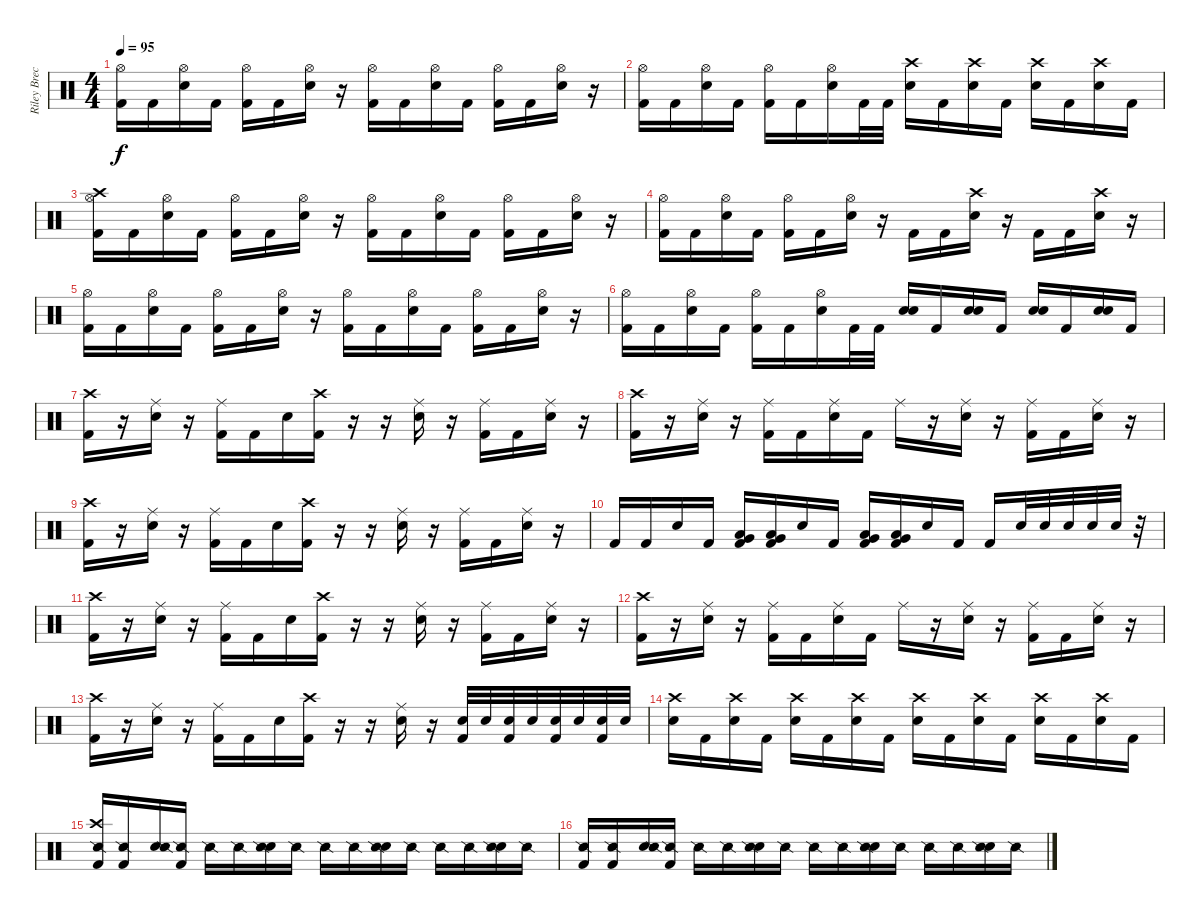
\track ("Riley Breckenridge" "Riley Brec") {instrument percussion}
\staff {score}
\articulation defaults
\ts (4 4)
\tempo 95
\clef neutral
\ks c
("Kick (hit) 2" "Hi-Hat (open)").16{dy f} "Kick (hit) 2".16 ("Electric Snare (hit)" "Hi-Hat (open)").16 "Kick (hit) 2".16 ("Kick (hit) 2" "Hi-Hat (open)").16 "Kick (hit) 2".16 ("Electric Snare (hit)" "Hi-Hat (open)").16 r.16 ("Kick (hit) 2" "Hi-Hat (open)").16 "Kick (hit) 2".16 ("Electric Snare (hit)" "Hi-Hat (open)").16 "Kick (hit) 2".16 ("Kick (hit) 2" "Hi-Hat (open)").16 "Kick (hit) 2".16 ("Electric Snare (hit)" "Hi-Hat (open)").16 r.16 |
("Kick (hit) 2" "Hi-Hat (open)").16 "Kick (hit) 2".16 ("Electric Snare (hit)" "Hi-Hat (open)").16 "Kick (hit) 2".16 ("Kick (hit) 2" "Hi-Hat (open)").16 "Kick (hit) 2".16 ("Electric Snare (hit)" "Hi-Hat (open)").16 "Kick (hit) 2".32 "Kick (hit) 2".32 ("Electric Snare (hit)" "Crash high (hit)").16 "Kick (hit) 2".16 ("Electric Snare (hit)" "Crash high (hit)").16 "Kick (hit) 2".16 ("Electric Snare (hit)" "Crash high (hit)").16 "Kick (hit) 2".16 ("Electric Snare (hit)" "Crash high (hit)").16 "Kick (hit) 2".16 |
("Kick (hit) 2" "Crash high (hit)" "Hi-Hat (open)").16 "Kick (hit) 2".16 ("Electric Snare (hit)" "Hi-Hat (open)").16 "Kick (hit) 2".16 ("Kick (hit) 2" "Hi-Hat (open)").16 "Kick (hit) 2".16 ("Electric Snare (hit)" "Hi-Hat (open)").16 r.16 ("Kick (hit) 2" "Hi-Hat (open)").16 "Kick (hit) 2".16 ("Electric Snare (hit)" "Hi-Hat (open)").16 "Kick (hit) 2".16 ("Kick (hit) 2" "Hi-Hat (open)").16 "Kick (hit) 2".16 ("Electric Snare (hit)" "Hi-Hat (open)").16 r.16 |
("Kick (hit) 2" "Hi-Hat (open)").16 "Kick (hit) 2".16 ("Electric Snare (hit)" "Hi-Hat (open)").16 "Kick (hit) 2".16 ("Kick (hit) 2" "Hi-Hat (open)").16 "Kick (hit) 2".16 ("Electric Snare (hit)" "Hi-Hat (open)").16 r.16 "Kick (hit) 2".16 "Kick (hit) 2".16 ("Electric Snare (hit)" "Crash high (hit)").16 r.16 "Kick (hit) 2".16 "Kick (hit) 2".16 ("Electric Snare (hit)" "Crash high (hit)").16 r.16 |
("Kick (hit) 2" "Hi-Hat (open)").16 "Kick (hit) 2".16 ("Electric Snare (hit)" "Hi-Hat (open)").16 "Kick (hit) 2".16 ("Kick (hit) 2" "Hi-Hat (open)").16 "Kick (hit) 2".16 ("Electric Snare (hit)" "Hi-Hat (open)").16 r.16 ("Kick (hit) 2" "Hi-Hat (open)").16 "Kick (hit) 2".16 ("Electric Snare (hit)" "Hi-Hat (open)").16 "Kick (hit) 2".16 ("Kick (hit) 2" "Hi-Hat (open)").16 "Kick (hit) 2".16 ("Electric Snare (hit)" "Hi-Hat (open)").16 r.16 |
("Kick (hit) 2" "Hi-Hat (open)").16 "Kick (hit) 2".16 ("Electric Snare (hit)" "Hi-Hat (open)").16 "Kick (hit) 2".16 ("Kick (hit) 2" "Hi-Hat (open)").16 "Kick (hit) 2".16 ("Electric Snare (hit)" "Hi-Hat (open)").16 "Kick (hit) 2".32 "Kick (hit) 2".32 ("Electric Snare (hit)" "Electric Snare (hit)").16 "Kick (hit) 2".16 ("Electric Snare (hit)" "Electric Snare (hit)").16 "Kick (hit) 2".16 ("Electric Snare (hit)" "Electric Snare (hit)").16 "Kick (hit) 2".16 ("Electric Snare (hit)" "Electric Snare (hit)").16 "Kick (hit) 2".16 |
("Kick (hit) 2" "Crash high (hit)").16 r.16 ("Electric Snare (hit)" "Ride (middle)").16 r.16 ("Kick (hit) 2" "Ride (middle)").16 "Kick (hit) 2".16 "Electric Snare (hit)".16 ("Kick (hit) 2" "Crash high (hit)").16 r.16 r.16 ("Electric Snare (hit)" "Ride (middle)").16 r.16 ("Kick (hit) 2" "Ride (middle)").16 "Kick (hit) 2".16 ("Electric Snare (hit)" "Ride (middle)").16 r.16 |
("Kick (hit) 2" "Crash high (hit)").16 r.16 ("Electric Snare (hit)" "Ride (middle)").16 r.16 ("Kick (hit) 2" "Ride (middle)").16 "Kick (hit) 2".16 ("Electric Snare (hit)" "Ride (middle)").16 "Kick (hit) 2".16 "Ride (middle)".16 r.16 ("Electric Snare (hit)" "Ride (middle)").16 r.16 ("Kick (hit) 2" "Ride (middle)").16 "Kick (hit) 2".16 ("Electric Snare (hit)" "Ride (middle)").16 r.16 |
("Kick (hit) 2" "Crash high (hit)").16 r.16 ("Electric Snare (hit)" "Ride (middle)").16 r.16 ("Kick (hit) 2" "Ride (middle)").16 "Kick (hit) 2".16 "Electric Snare (hit)".16 ("Kick (hit) 2" "Crash high (hit)").16 r.16 r.16 ("Electric Snare (hit)" "Ride (middle)").16 r.16 ("Kick (hit) 2" "Ride (middle)").16 "Kick (hit) 2".16 ("Electric Snare (hit)" "Ride (middle)").16 r.16 |
"Kick (hit) 2".16 "Kick (hit) 2".16 "Electric Snare (hit)".16 "Kick (hit) 2".16 ("Kick (hit) 2" "Very Low Tom (hit)" "Low Floor Tom (hit)").16 ("Kick (hit) 2" "Very Low Tom (hit)" "Low Floor Tom (hit)").16 "Electric Snare (hit)".16 "Kick (hit) 2".16 ("Kick (hit) 2" "Very Low Tom (hit)" "Low Floor Tom (hit)").16 ("Kick (hit) 2" "Very Low Tom (hit)" "Low Floor Tom (hit)").16 "Electric Snare (hit)".16 "Kick (hit) 2".16 "Kick (hit) 2".16 "Electric Snare (hit)".32 "Electric Snare (hit)".32 "Electric Snare (hit)".32 "Electric Snare (hit)".32 "Electric Snare (hit)".32 r.32 |
("Kick (hit) 2" "Crash high (hit)").16 r.16 ("Electric Snare (hit)" "Ride (middle)").16 r.16 ("Kick (hit) 2" "Ride (middle)").16 "Kick (hit) 2".16 "Electric Snare (hit)".16 ("Kick (hit) 2" "Crash high (hit)").16 r.16 r.16 ("Electric Snare (hit)" "Ride (middle)").16 r.16 ("Kick (hit) 2" "Ride (middle)").16 "Kick (hit) 2".16 ("Electric Snare (hit)" "Ride (middle)").16 r.16 |
("Kick (hit) 2" "Crash high (hit)").16 r.16 ("Electric Snare (hit)" "Ride (middle)").16 r.16 ("Kick (hit) 2" "Ride (middle)").16 "Kick (hit) 2".16 ("Electric Snare (hit)" "Ride (middle)").16 "Kick (hit) 2".16 "Ride (middle)".16 r.16 ("Electric Snare (hit)" "Ride (middle)").16 r.16 ("Kick (hit) 2" "Ride (middle)").16 "Kick (hit) 2".16 ("Electric Snare (hit)" "Ride (middle)").16 r.16 |
("Kick (hit) 2" "Crash high (hit)").16 r.16 ("Electric Snare (hit)" "Ride (middle)").16 r.16 ("Kick (hit) 2" "Ride (middle)").16 "Kick (hit) 2".16 "Electric Snare (hit)".16 ("Kick (hit) 2" "Crash high (hit)").16 r.16 r.16 ("Electric Snare (hit)" "Ride (middle)").16 r.16 ("Kick (hit) 2" "Electric Snare (hit)").32 "Electric Snare (hit)".32 ("Kick (hit) 2" "Electric Snare (hit)").32 "Electric Snare (hit)".32 ("Kick (hit) 2" "Electric Snare (hit)").32 "Electric Snare (hit)".32 ("Kick (hit) 2" "Electric Snare (hit)").32 "Electric Snare (hit)".32 |
("Crash high (hit)" "Electric Snare (hit)").16 "Kick (hit) 2".16 ("Electric Snare (hit)" "Crash high (hit)").16 "Kick (hit) 2".16 ("Electric Snare (hit)" "Crash high (hit)").16 "Kick (hit) 2".16 ("Electric Snare (hit)" "Crash high (hit)").16 "Kick (hit) 2".16 ("Electric Snare (hit)" "Crash high (hit)").16 "Kick (hit) 2".16 ("Electric Snare (hit)" "Crash high (hit)").16 "Kick (hit) 2".16 ("Electric Snare (hit)" "Crash high (hit)").16 "Kick (hit) 2".16 ("Electric Snare (hit)" "Crash high (hit)").16 "Kick (hit) 2".16 |
("Kick (hit) 2" "Crash high (hit)" "Snare (side stick) 2").16 ("Kick (hit) 2" "Snare (side stick) 2").16 ("Electric Snare (hit)" "Snare (side stick) 2").16 ("Kick (hit) 2" "Snare (side stick) 2").16 "Snare (side stick) 2".16 "Snare (side stick) 2".16 ("Electric Snare (hit)" "Snare (side stick) 2").16 "Snare (side stick) 2".16 "Snare (side stick) 2".16 "Snare (side stick) 2".16 ("Electric Snare (hit)" "Snare (side stick) 2").16 "Snare (side stick) 2".16 "Snare (side stick) 2".16 "Snare (side stick) 2".16 ("Electric Snare (hit)" "Snare (side stick) 2").16 "Snare (side stick) 2".16 |
("Kick (hit) 2" "Snare (side stick) 2").16 ("Kick (hit) 2" "Snare (side stick) 2").16 ("Electric Snare (hit)" "Snare (side stick) 2").16 ("Kick (hit) 2" "Snare (side stick) 2").16 "Snare (side stick) 2".16 "Snare (side stick) 2".16 ("Electric Snare (hit)" "Snare (side stick) 2").16 "Snare (side stick) 2".16 "Snare (side stick) 2".16 "Snare (side stick) 2".16 ("Electric Snare (hit)" "Snare (side stick) 2").16 "Snare (side stick) 2".16 "Snare (side stick) 2".16 "Snare (side stick) 2".16 ("Electric Snare (hit)" "Snare (side stick) 2").16 "Snare (side stick) 2".16
